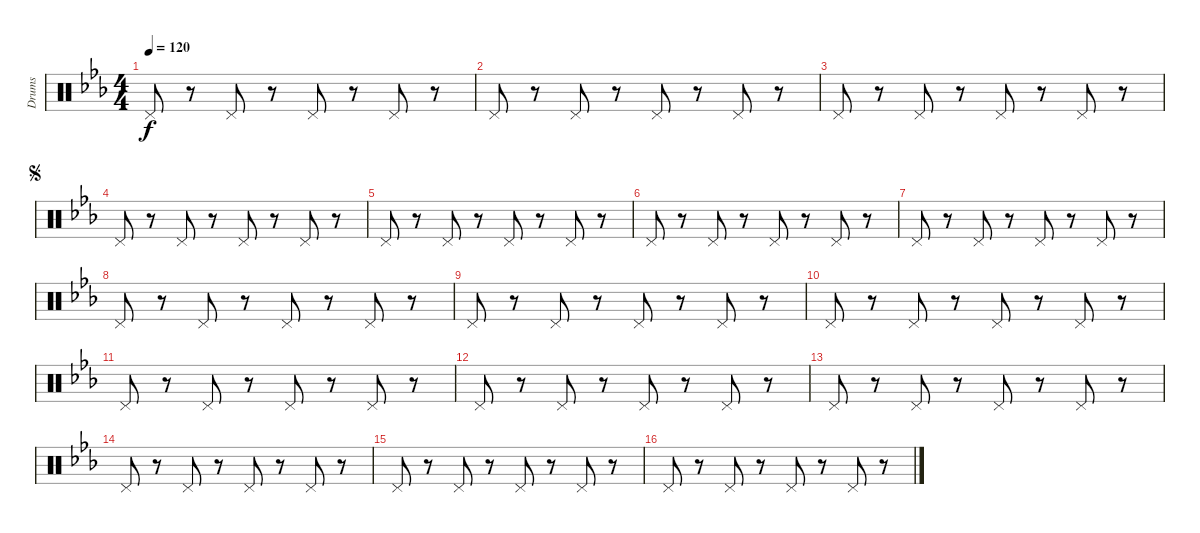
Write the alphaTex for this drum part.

\track ("Drums" "Drums") {instrument percussion}
\staff {score}
\articulation defaults
\ts (4 4)
\tempo 120
\clef neutral
\ks cminor "Pedal Hi-Hat (hit)".8{dy f}
r.8 "Pedal Hi-Hat (hit)".8 r.8 "Pedal Hi-Hat (hit)".8 r.8 "Pedal Hi-Hat (hit)".8 r.8 |
"Pedal Hi-Hat (hit)".8 r.8 "Pedal Hi-Hat (hit)".8 r.8 "Pedal Hi-Hat (hit)".8 r.8 "Pedal Hi-Hat (hit)".8 r.8 |
"Pedal Hi-Hat (hit)".8 r.8 "Pedal Hi-Hat (hit)".8 r.8 "Pedal Hi-Hat (hit)".8 r.8 "Pedal Hi-Hat (hit)".8 r.8 |
\jump segno "Pedal Hi-Hat (hit)".8
r.8 "Pedal Hi-Hat (hit)".8 r.8 "Pedal Hi-Hat (hit)".8 r.8 "Pedal Hi-Hat (hit)".8 r.8 |
"Pedal Hi-Hat (hit)".8 r.8 "Pedal Hi-Hat (hit)".8 r.8 "Pedal Hi-Hat (hit)".8 r.8 "Pedal Hi-Hat (hit)".8 r.8 |
"Pedal Hi-Hat (hit)".8 r.8 "Pedal Hi-Hat (hit)".8 r.8 "Pedal Hi-Hat (hit)".8 r.8 "Pedal Hi-Hat (hit)".8 r.8 |
"Pedal Hi-Hat (hit)".8 r.8 "Pedal Hi-Hat (hit)".8 r.8 "Pedal Hi-Hat (hit)".8 r.8 "Pedal Hi-Hat (hit)".8 r.8 |
"Pedal Hi-Hat (hit)".8 r.8 "Pedal Hi-Hat (hit)".8 r.8 "Pedal Hi-Hat (hit)".8 r.8 "Pedal Hi-Hat (hit)".8 r.8 |
"Pedal Hi-Hat (hit)".8 r.8 "Pedal Hi-Hat (hit)".8 r.8 "Pedal Hi-Hat (hit)".8 r.8 "Pedal Hi-Hat (hit)".8 r.8 |
"Pedal Hi-Hat (hit)".8 r.8 "Pedal Hi-Hat (hit)".8 r.8 "Pedal Hi-Hat (hit)".8 r.8 "Pedal Hi-Hat (hit)".8 r.8 |
"Pedal Hi-Hat (hit)".8 r.8 "Pedal Hi-Hat (hit)".8 r.8 "Pedal Hi-Hat (hit)".8 r.8 "Pedal Hi-Hat (hit)".8 r.8 |
"Pedal Hi-Hat (hit)".8 r.8 "Pedal Hi-Hat (hit)".8 r.8 "Pedal Hi-Hat (hit)".8 r.8 "Pedal Hi-Hat (hit)".8 r.8 |
"Pedal Hi-Hat (hit)".8 r.8 "Pedal Hi-Hat (hit)".8 r.8 "Pedal Hi-Hat (hit)".8 r.8 "Pedal Hi-Hat (hit)".8 r.8 |
"Pedal Hi-Hat (hit)".8 r.8 "Pedal Hi-Hat (hit)".8 r.8 "Pedal Hi-Hat (hit)".8 r.8 "Pedal Hi-Hat (hit)".8 r.8 |
"Pedal Hi-Hat (hit)".8 r.8 "Pedal Hi-Hat (hit)".8 r.8 "Pedal Hi-Hat (hit)".8 r.8 "Pedal Hi-Hat (hit)".8 r.8 |
"Pedal Hi-Hat (hit)".8 r.8 "Pedal Hi-Hat (hit)".8 r.8 "Pedal Hi-Hat (hit)".8 r.8 "Pedal Hi-Hat (hit)".8 r.8
